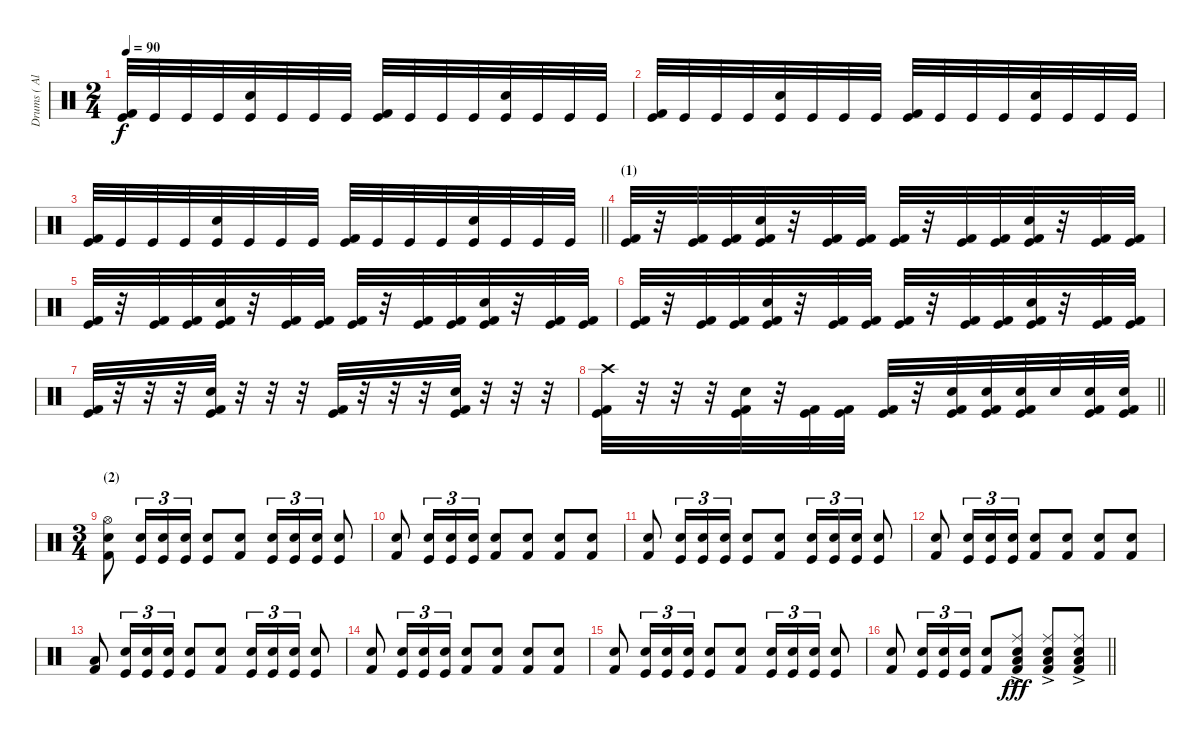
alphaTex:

\track ("Drums ( Alex Holzwarth)" "Drums ( Al") {instrument percussion}
\staff {score}
\articulation defaults
\ts (2 4)
\tempo 90
\clef neutral
\ks c
("Kick (hit) 2" "Kick (hit)").32{dy f} "Kick (hit)".32 "Kick (hit)".32 "Kick (hit)".32 ("Snare (hit) 2" "Kick (hit)").32 "Kick (hit)".32 "Kick (hit)".32 "Kick (hit)".32 ("Kick (hit) 2" "Kick (hit)").32 "Kick (hit)".32 "Kick (hit)".32 "Kick (hit)".32 ("Snare (hit) 2" "Kick (hit)").32 "Kick (hit)".32 "Kick (hit)".32 "Kick (hit)".32 |
("Kick (hit) 2" "Kick (hit)").32 "Kick (hit)".32 "Kick (hit)".32 "Kick (hit)".32 ("Snare (hit) 2" "Kick (hit)").32 "Kick (hit)".32 "Kick (hit)".32 "Kick (hit)".32 ("Kick (hit) 2" "Kick (hit)").32 "Kick (hit)".32 "Kick (hit)".32 "Kick (hit)".32 ("Snare (hit) 2" "Kick (hit)").32 "Kick (hit)".32 "Kick (hit)".32 "Kick (hit)".32 |
\barLineRight lightlight
("Kick (hit) 2" "Kick (hit)").32 "Kick (hit)".32 "Kick (hit)".32 "Kick (hit)".32 ("Snare (hit) 2" "Kick (hit)").32 "Kick (hit)".32 "Kick (hit)".32 "Kick (hit)".32 ("Kick (hit) 2" "Kick (hit)").32 "Kick (hit)".32 "Kick (hit)".32 "Kick (hit)".32 ("Snare (hit) 2" "Kick (hit)").32 "Kick (hit)".32 "Kick (hit)".32 "Kick (hit)".32 |
\section ("" "(1)")
("Kick (hit) 2" "Kick (hit)").32 r.32 ("Kick (hit) 2" "Kick (hit)").32 ("Kick (hit) 2" "Kick (hit)").32 ("Snare (hit) 2" "Kick (hit) 2" "Kick (hit)").32 r.32 ("Kick (hit) 2" "Kick (hit)").32 ("Kick (hit) 2" "Kick (hit)").32 ("Kick (hit) 2" "Kick (hit)").32 r.32 ("Kick (hit) 2" "Kick (hit)").32 ("Kick (hit) 2" "Kick (hit)").32 ("Snare (hit) 2" "Kick (hit) 2" "Kick (hit)").32 r.32 ("Kick (hit) 2" "Kick (hit)").32 ("Kick (hit) 2" "Kick (hit)").32 |
("Kick (hit) 2" "Kick (hit)").32 r.32 ("Kick (hit) 2" "Kick (hit)").32 ("Kick (hit) 2" "Kick (hit)").32 ("Snare (hit) 2" "Kick (hit) 2" "Kick (hit)").32 r.32 ("Kick (hit) 2" "Kick (hit)").32 ("Kick (hit) 2" "Kick (hit)").32 ("Kick (hit) 2" "Kick (hit)").32 r.32 ("Kick (hit) 2" "Kick (hit)").32 ("Kick (hit) 2" "Kick (hit)").32 ("Snare (hit) 2" "Kick (hit) 2" "Kick (hit)").32 r.32 ("Kick (hit) 2" "Kick (hit)").32 ("Kick (hit) 2" "Kick (hit)").32 |
("Kick (hit) 2" "Kick (hit)").32 r.32 ("Kick (hit) 2" "Kick (hit)").32 ("Kick (hit) 2" "Kick (hit)").32 ("Snare (hit) 2" "Kick (hit) 2" "Kick (hit)").32 r.32 ("Kick (hit) 2" "Kick (hit)").32 ("Kick (hit) 2" "Kick (hit)").32 ("Kick (hit) 2" "Kick (hit)").32 r.32 ("Kick (hit) 2" "Kick (hit)").32 ("Kick (hit) 2" "Kick (hit)").32 ("Snare (hit) 2" "Kick (hit) 2" "Kick (hit)").32 r.32 ("Kick (hit) 2" "Kick (hit)").32 ("Kick (hit) 2" "Kick (hit)").32 |
("Kick (hit) 2" "Kick (hit)").32 r.32 r.32 r.32 ("Snare (hit) 2" "Kick (hit) 2" "Kick (hit)").32 r.32 r.32 r.32 ("Kick (hit) 2" "Kick (hit)").32 r.32 r.32 r.32 ("Snare (hit) 2" "Kick (hit) 2" "Kick (hit)").32 r.32 r.32 r.32 |
\barLineRight lightlight
("Crash high (hit)" "Kick (hit) 2" "Kick (hit)").32 r.32 r.32 r.32 ("Snare (hit) 2" "Kick (hit) 2" "Kick (hit)").32 r.32 ("Kick (hit) 2" "Kick (hit)").32 ("Kick (hit) 2" "Kick (hit)").32 ("Kick (hit) 2" "Kick (hit)").32 r.32 ("Electric Snare (hit)" "Kick (hit) 2" "Kick (hit)").32 ("Electric Snare (hit)" "Kick (hit) 2" "Kick (hit)").32 ("Electric Snare (hit)" "Kick (hit) 2" "Kick (hit)").32 "Electric Snare (hit)".32 ("Electric Snare (hit)" "Kick (hit) 2" "Kick (hit)").32 ("Electric Snare (hit)" "Kick (hit) 2" "Kick (hit)").32 |
\ts (3 4)
\section ("" "(2)")
("Hi-Hat (open)" "Electric Snare (hit)" "Kick (hit) 2").8 ("Electric Snare (hit)" "Kick (hit)").16{tu (3 2)} ("Electric Snare (hit)" "Kick (hit)").16{tu (3 2)} ("Electric Snare (hit)" "Kick (hit)").16{tu (3 2)} ("Electric Snare (hit)" "Kick (hit)").8 ("Electric Snare (hit)" "Kick (hit) 2").8 ("Electric Snare (hit)" "Kick (hit)").16{tu (3 2)} ("Electric Snare (hit)" "Kick (hit)").16{tu (3 2)} ("Electric Snare (hit)" "Kick (hit)").16{tu (3 2)} ("Electric Snare (hit)" "Kick (hit)").8 |
("Electric Snare (hit)" "Kick (hit) 2").8 ("Electric Snare (hit)" "Kick (hit)").16{tu (3 2)} ("Electric Snare (hit)" "Kick (hit)").16{tu (3 2)} ("Electric Snare (hit)" "Kick (hit)").16{tu (3 2)} ("Electric Snare (hit)" "Kick (hit) 2").8 ("Electric Snare (hit)" "Kick (hit) 2").8 ("Electric Snare (hit)" "Kick (hit) 2").8 ("Electric Snare (hit)" "Kick (hit) 2").8 |
("Electric Snare (hit)" "Kick (hit) 2").8 ("Electric Snare (hit)" "Kick (hit)").16{tu (3 2)} ("Electric Snare (hit)" "Kick (hit)").16{tu (3 2)} ("Electric Snare (hit)" "Kick (hit)").16{tu (3 2)} ("Electric Snare (hit)" "Kick (hit)").8 ("Electric Snare (hit)" "Kick (hit) 2").8 ("Electric Snare (hit)" "Kick (hit)").16{tu (3 2)} ("Electric Snare (hit)" "Kick (hit)").16{tu (3 2)} ("Electric Snare (hit)" "Kick (hit)").16{tu (3 2)} ("Electric Snare (hit)" "Kick (hit)").8 |
("Electric Snare (hit)" "Kick (hit) 2").8 ("Electric Snare (hit)" "Kick (hit)").16{tu (3 2)} ("Electric Snare (hit)" "Kick (hit)").16{tu (3 2)} ("Electric Snare (hit)" "Kick (hit)").16{tu (3 2)} ("Electric Snare (hit)" "Kick (hit) 2").8 ("Electric Snare (hit)" "Kick (hit) 2").8 ("Electric Snare (hit)" "Kick (hit) 2").8 ("Electric Snare (hit)" "Kick (hit) 2").8 |
("Low Tom (hit)" "Kick (hit) 2").8 ("Electric Snare (hit)" "Kick (hit)").16{tu (3 2)} ("Electric Snare (hit)" "Kick (hit)").16{tu (3 2)} ("Electric Snare (hit)" "Kick (hit)").16{tu (3 2)} ("Electric Snare (hit)" "Kick (hit)").8 ("Electric Snare (hit)" "Kick (hit) 2").8 ("Electric Snare (hit)" "Kick (hit)").16{tu (3 2)} ("Electric Snare (hit)" "Kick (hit)").16{tu (3 2)} ("Electric Snare (hit)" "Kick (hit)").16{tu (3 2)} ("Electric Snare (hit)" "Kick (hit)").8 |
("Electric Snare (hit)" "Kick (hit) 2").8 ("Electric Snare (hit)" "Kick (hit)").16{tu (3 2)} ("Electric Snare (hit)" "Kick (hit)").16{tu (3 2)} ("Electric Snare (hit)" "Kick (hit)").16{tu (3 2)} ("Electric Snare (hit)" "Kick (hit) 2").8 ("Electric Snare (hit)" "Kick (hit) 2").8 ("Electric Snare (hit)" "Kick (hit) 2").8 ("Electric Snare (hit)" "Kick (hit) 2").8 |
("Electric Snare (hit)" "Kick (hit) 2").8 ("Electric Snare (hit)" "Kick (hit)").16{tu (3 2)} ("Electric Snare (hit)" "Kick (hit)").16{tu (3 2)} ("Electric Snare (hit)" "Kick (hit)").16{tu (3 2)} ("Electric Snare (hit)" "Kick (hit)").8 ("Electric Snare (hit)" "Kick (hit) 2").8 ("Electric Snare (hit)" "Kick (hit)").16{tu (3 2)} ("Electric Snare (hit)" "Kick (hit)").16{tu (3 2)} ("Electric Snare (hit)" "Kick (hit)").16{tu (3 2)} ("Electric Snare (hit)" "Kick (hit)").8 |
\barLineRight lightlight
("Electric Snare (hit)" "Kick (hit) 2").8 ("Electric Snare (hit)" "Kick (hit)").16{tu (3 2)} ("Electric Snare (hit)" "Kick (hit)").16{tu (3 2)} ("Electric Snare (hit)" "Kick (hit)").16{tu (3 2)} ("Electric Snare (hit)" "Kick (hit) 2").8 ("Ride (middle)" "Low Floor Tom (hit)" "Electric Snare (hit)"{ac} "Kick (hit) 2"{ac}).8{dy fff} ("Ride (middle)" "Low Floor Tom (hit)" "Electric Snare (hit)"{ac} "Kick (hit) 2"{ac}).8 ("Ride (middle)" "Low Floor Tom (hit)" "Electric Snare (hit)"{ac} "Kick (hit) 2"{ac}).8
